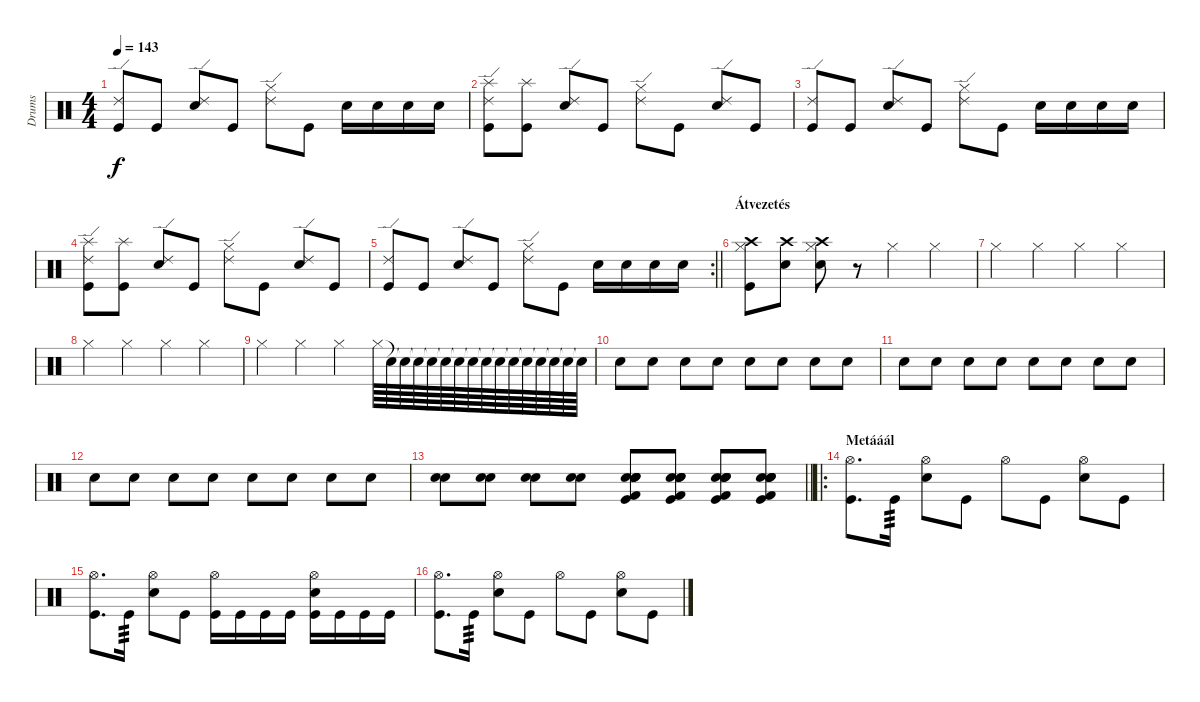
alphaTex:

\track ("Drums" "Drums") {instrument percussion}
\staff {score}
\articulation defaults
\ts (4 4)
\tempo 143
\clef neutral
\ks c
("Ride (edge) 2" "Kick (hit)").8{dy f} "Kick (hit)".8 ("Ride (edge) 2" "Electric Snare (hit)").8 "Kick (hit)".8 ("Ride (edge) 2" "Hi-Hat (closed)").8 "Kick (hit)".8 "Electric Snare (hit)".16{balance 0} "Electric Snare (hit)".16{balance 5} "Electric Snare (hit)".16{balance 11} "Electric Snare (hit)".16{balance 16} |
("Ride (edge) 2" "Splash (hit)" "Kick (hit)").8{balance 0} ("Splash (hit)" "Kick (hit)").8{balance 16} ("Ride (edge) 2" "Electric Snare (hit)").8 "Kick (hit)".8 ("Ride (edge) 2" "Hi-Hat (closed)").8 "Kick (hit)".8 ("Ride (edge) 2" "Electric Snare (hit)").8 "Kick (hit)".8 |
("Ride (edge) 2" "Kick (hit)").8 "Kick (hit)".8 ("Ride (edge) 2" "Electric Snare (hit)").8 "Kick (hit)".8 ("Ride (edge) 2" "Hi-Hat (closed)").8 "Kick (hit)".8 "Electric Snare (hit)".16{balance 0} "Electric Snare (hit)".16{balance 5} "Electric Snare (hit)".16{balance 11} "Electric Snare (hit)".16{balance 16} |
("Ride (edge) 2" "Splash (hit)" "Kick (hit)").8{balance 0} ("Splash (hit)" "Kick (hit)").8{balance 16} ("Ride (edge) 2" "Electric Snare (hit)").8 "Kick (hit)".8 ("Ride (edge) 2" "Hi-Hat (closed)").8 "Kick (hit)".8 ("Ride (edge) 2" "Electric Snare (hit)").8 "Kick (hit)".8 |
\rc 2
\barLineRight lightlight
("Ride (edge) 2" "Kick (hit)").8 "Kick (hit)".8 ("Ride (edge) 2" "Electric Snare (hit)").8 "Kick (hit)".8 ("Ride (edge) 2" "Hi-Hat (closed)").8 "Kick (hit)".8 "Electric Snare (hit)".16{balance 0} "Electric Snare (hit)".16{balance 5} "Electric Snare (hit)".16{balance 11} "Electric Snare (hit)".16{balance 16} |
\section ("" "Átvezetés")
("Hi-Hat (closed)" "Crash high (hit)" "Kick (hit)").8 ("Crash high (hit)" "Electric Snare (hit)").8 ("Hi-Hat (closed)" "Crash high (hit)" "Snare (hit) 2").8 r.8 "Hi-Hat (closed)".4 "Hi-Hat (closed)".4 |
"Hi-Hat (closed)".4 "Hi-Hat (closed)".4 "Hi-Hat (closed)".4 "Hi-Hat (closed)".4 |
"Hi-Hat (closed)".4 "Hi-Hat (closed)".4 "Hi-Hat (closed)".4 "Hi-Hat (closed)".4 |
"Hi-Hat (closed)".4 "Hi-Hat (closed)".4 "Hi-Hat (closed)".4 "Hi-Hat (closed)".64 "Snare (hit)"{t}.64 "Snare (hit)"{t}.64 "Snare (hit)"{t}.64 "Snare (hit)"{t}.64 "Snare (hit)"{t}.64 "Snare (hit)"{t}.64 "Snare (hit)"{t}.64 "Snare (hit)"{t}.64 "Snare (hit)"{t}.64 "Snare (hit)"{t}.64 "Snare (hit)"{t}.64 "Snare (hit)"{t}.64 "Snare (hit)"{t}.64 "Snare (hit)"{t}.64 "Snare (hit)"{t}.64{volume 5} |
"Snare (hit) 2".8{volume 16} "Snare (hit) 2".8 "Snare (hit) 2".8 "Snare (hit) 2".8 "Snare (hit) 2".8 "Snare (hit) 2".8 "Snare (hit) 2".8 "Snare (hit) 2".8 |
"Snare (hit) 2".8 "Snare (hit) 2".8 "Snare (hit) 2".8 "Snare (hit) 2".8 "Snare (hit) 2".8 "Snare (hit) 2".8 "Snare (hit) 2".8 "Snare (hit) 2".8 |
"Snare (hit) 2".8 "Snare (hit) 2".8 "Snare (hit) 2".8 "Snare (hit) 2".8 "Snare (hit) 2".8 "Snare (hit) 2".8 "Snare (hit) 2".8 "Snare (hit) 2".8 |
\barLineRight lightlight
("Electric Snare (hit)" "Snare (hit) 2").8 ("Electric Snare (hit)" "Snare (hit) 2").8 ("Electric Snare (hit)" "Snare (hit) 2").8 ("Electric Snare (hit)" "Snare (hit) 2").8 ("Snare (hit) 2" "Electric Snare (hit)" "Electric Snare (hit)" "Snare (hit) 2" "Kick (hit) 2" "Kick (hit)").8 ("Snare (hit) 2" "Electric Snare (hit)" "Electric Snare (hit)" "Snare (hit) 2" "Kick (hit) 2" "Kick (hit)").8 ("Snare (hit) 2" "Electric Snare (hit)" "Electric Snare (hit)" "Snare (hit) 2" "Kick (hit) 2" "Kick (hit)").8 ("Snare (hit) 2" "Electric Snare (hit)" "Electric Snare (hit)" "Snare (hit) 2" "Kick (hit) 2" "Kick (hit)").8 |
\ro
\section ("" "Metááál")
("Hi-Hat (open)" "Kick (hit)").8{d} "Kick (hit)".16{tp 3} ("Hi-Hat (open)" "Electric Snare (hit)").8 "Kick (hit)".8 "Hi-Hat (open)".8 "Kick (hit)".8 ("Hi-Hat (open)" "Electric Snare (hit)").8 "Kick (hit)".8 |
("Hi-Hat (open)" "Kick (hit)").8{d} "Kick (hit)".16{tp 3} ("Hi-Hat (open)" "Electric Snare (hit)").8 "Kick (hit)".8 ("Hi-Hat (open)" "Kick (hit)").16 "Kick (hit)".16 "Kick (hit)".16 "Kick (hit)".16 ("Hi-Hat (open)" "Electric Snare (hit)" "Kick (hit)").16 "Kick (hit)".16 "Kick (hit)".16 "Kick (hit)".16 |
("Hi-Hat (open)" "Kick (hit)").8{d} "Kick (hit)".16{tp 3} ("Hi-Hat (open)" "Electric Snare (hit)").8 "Kick (hit)".8 "Hi-Hat (open)".8 "Kick (hit)".8 ("Hi-Hat (open)" "Electric Snare (hit)").8 "Kick (hit)".8
